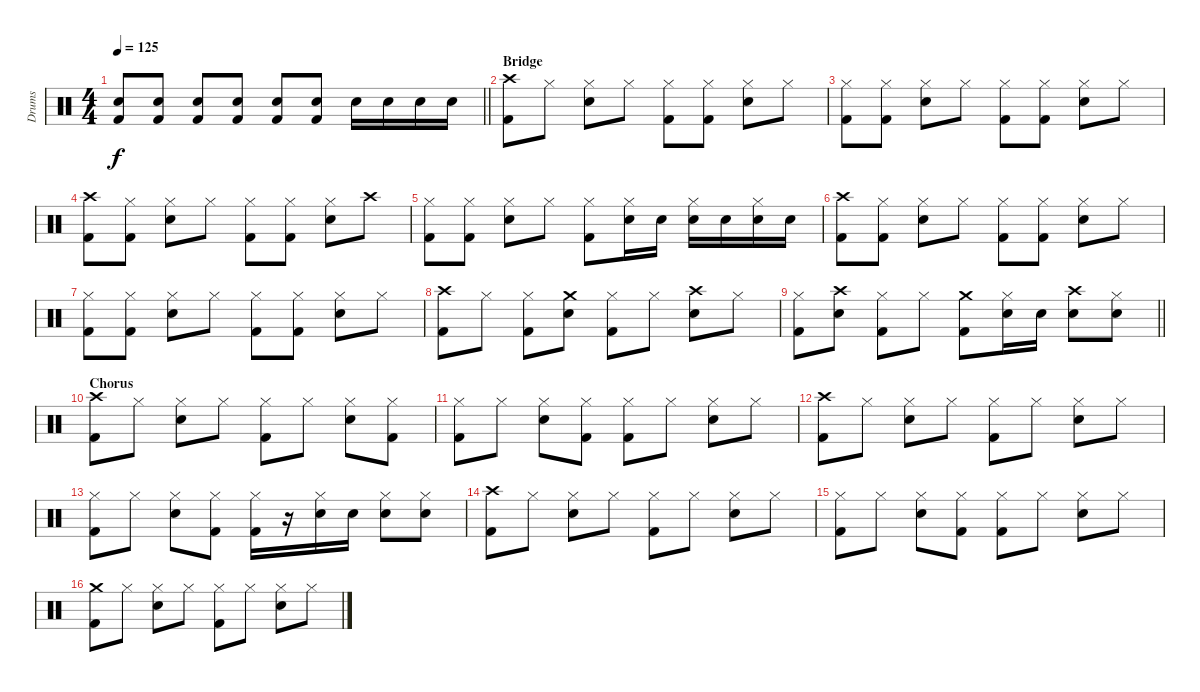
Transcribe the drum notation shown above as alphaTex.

\track ("Drums" "Drums") {instrument percussion}
\staff {score}
\articulation defaults
\ts (4 4)
\tempo 125
\clef neutral
\barLineRight lightlight
\ks c
("Electric Snare (hit)" "Kick (hit) 2").8{dy f} ("Electric Snare (hit)" "Kick (hit) 2").8 ("Electric Snare (hit)" "Kick (hit) 2").8 ("Electric Snare (hit)" "Kick (hit) 2").8 ("Electric Snare (hit)" "Kick (hit) 2").8 ("Electric Snare (hit)" "Kick (hit) 2").8 "Electric Snare (hit)".16 "Electric Snare (hit)".16 "Electric Snare (hit)".16 "Electric Snare (hit)".16 |
\section ("" "Bridge")
("Crash high (hit)" "Kick (hit) 2").8 "Hi-Hat (closed)".8 ("Hi-Hat (closed)" "Electric Snare (hit)").8 "Hi-Hat (closed)".8 ("Hi-Hat (closed)" "Kick (hit) 2").8 ("Hi-Hat (closed)" "Kick (hit) 2").8 ("Hi-Hat (closed)" "Electric Snare (hit)").8 "Hi-Hat (closed)".8 |
("Hi-Hat (closed)" "Kick (hit) 2").8 ("Hi-Hat (closed)" "Kick (hit) 2").8 ("Hi-Hat (closed)" "Electric Snare (hit)").8 "Hi-Hat (closed)".8 ("Hi-Hat (closed)" "Kick (hit) 2").8 ("Hi-Hat (closed)" "Kick (hit) 2").8 ("Hi-Hat (closed)" "Electric Snare (hit)").8 "Hi-Hat (closed)".8 |
("Crash high (hit)" "Kick (hit) 2").8 ("Hi-Hat (closed)" "Kick (hit) 2").8 ("Hi-Hat (closed)" "Electric Snare (hit)").8 "Hi-Hat (closed)".8 ("Hi-Hat (closed)" "Kick (hit) 2").8 ("Hi-Hat (closed)" "Kick (hit) 2").8 ("Hi-Hat (closed)" "Electric Snare (hit)").8 "Crash high (hit)".8 |
("Hi-Hat (closed)" "Kick (hit) 2").8 ("Hi-Hat (closed)" "Kick (hit) 2").8 ("Hi-Hat (closed)" "Electric Snare (hit)").8 "Hi-Hat (closed)".8 ("Hi-Hat (closed)" "Kick (hit) 2").8 ("Hi-Hat (closed)" "Electric Snare (hit)").16 "Electric Snare (hit)".16 ("Hi-Hat (closed)" "Electric Snare (hit)").16 "Electric Snare (hit)".16 ("Hi-Hat (closed)" "Electric Snare (hit)").16 "Electric Snare (hit)".16 |
("Crash high (hit)" "Kick (hit) 2").8 ("Hi-Hat (closed)" "Kick (hit) 2").8 ("Hi-Hat (closed)" "Electric Snare (hit)").8 "Hi-Hat (closed)".8 ("Hi-Hat (closed)" "Kick (hit) 2").8 ("Hi-Hat (closed)" "Kick (hit) 2").8 ("Hi-Hat (closed)" "Electric Snare (hit)").8 "Hi-Hat (closed)".8 |
("Hi-Hat (closed)" "Kick (hit) 2").8 ("Hi-Hat (closed)" "Kick (hit) 2").8 ("Hi-Hat (closed)" "Electric Snare (hit)").8 "Hi-Hat (closed)".8 ("Hi-Hat (closed)" "Kick (hit) 2").8 ("Hi-Hat (closed)" "Kick (hit) 2").8 ("Hi-Hat (closed)" "Electric Snare (hit)").8 "Hi-Hat (closed)".8 |
("Crash high (hit)" "Kick (hit) 2").8 "Hi-Hat (closed)".8 ("Hi-Hat (closed)" "Kick (hit) 2").8 ("Crash medium (hit)" "Electric Snare (hit)").8 ("Hi-Hat (closed)" "Kick (hit) 2").8 "Hi-Hat (closed)".8 ("Crash high (hit)" "Electric Snare (hit)").8 "Hi-Hat (closed)".8 |
\barLineRight lightlight
("Hi-Hat (closed)" "Kick (hit) 2").8 ("Crash high (hit)" "Electric Snare (hit)").8 ("Hi-Hat (closed)" "Kick (hit) 2").8 "Hi-Hat (closed)".8 ("Crash medium (hit)" "Kick (hit) 2").8 ("Hi-Hat (closed)" "Electric Snare (hit)").16 "Electric Snare (hit)".16 ("Crash high (hit)" "Electric Snare (hit)").8 ("Hi-Hat (closed)" "Electric Snare (hit)").8 |
\section ("" "Chorus")
("Crash high (hit)" "Kick (hit) 2").8 "Hi-Hat (closed)".8 ("Hi-Hat (closed)" "Electric Snare (hit)").8 "Hi-Hat (closed)".8 ("Hi-Hat (closed)" "Kick (hit) 2").8 "Hi-Hat (closed)".8 ("Hi-Hat (closed)" "Electric Snare (hit)").8 ("Hi-Hat (closed)" "Kick (hit) 2").8 |
("Hi-Hat (closed)" "Kick (hit) 2").8 "Hi-Hat (closed)".8 ("Hi-Hat (closed)" "Electric Snare (hit)").8 ("Hi-Hat (closed)" "Kick (hit) 2").8 ("Hi-Hat (closed)" "Kick (hit) 2").8 "Hi-Hat (closed)".8 ("Hi-Hat (closed)" "Electric Snare (hit)").8 "Hi-Hat (closed)".8 |
("Crash high (hit)" "Kick (hit) 2").8 "Hi-Hat (closed)".8 ("Hi-Hat (closed)" "Electric Snare (hit)").8 "Hi-Hat (closed)".8 ("Hi-Hat (closed)" "Kick (hit) 2").8 "Hi-Hat (closed)".8 ("Hi-Hat (closed)" "Electric Snare (hit)").8 "Hi-Hat (closed)".8 |
("Hi-Hat (closed)" "Kick (hit) 2").8 "Hi-Hat (closed)".8 ("Hi-Hat (closed)" "Electric Snare (hit)").8 ("Hi-Hat (closed)" "Kick (hit) 2").8 ("Hi-Hat (closed)" "Kick (hit) 2").16 r.16 ("Hi-Hat (closed)" "Electric Snare (hit)").16 "Electric Snare (hit)".16 ("Hi-Hat (closed)" "Electric Snare (hit)").8 ("Hi-Hat (closed)" "Electric Snare (hit)").8 |
("Crash high (hit)" "Kick (hit) 2").8 "Hi-Hat (closed)".8 ("Hi-Hat (closed)" "Electric Snare (hit)").8 "Hi-Hat (closed)".8 ("Hi-Hat (closed)" "Kick (hit) 2").8 "Hi-Hat (closed)".8 ("Hi-Hat (closed)" "Electric Snare (hit)").8 "Hi-Hat (closed)".8 |
("Hi-Hat (closed)" "Kick (hit) 2").8 "Hi-Hat (closed)".8 ("Hi-Hat (closed)" "Electric Snare (hit)").8 ("Hi-Hat (closed)" "Kick (hit) 2").8 ("Hi-Hat (closed)" "Kick (hit) 2").8 "Hi-Hat (closed)".8 ("Hi-Hat (closed)" "Electric Snare (hit)").8 "Hi-Hat (closed)".8 |
("Crash medium (hit)" "Kick (hit) 2").8 "Hi-Hat (closed)".8 ("Hi-Hat (closed)" "Electric Snare (hit)").8 "Hi-Hat (closed)".8 ("Hi-Hat (closed)" "Kick (hit) 2").8 "Hi-Hat (closed)".8 ("Hi-Hat (closed)" "Electric Snare (hit)").8 "Hi-Hat (closed)".8
